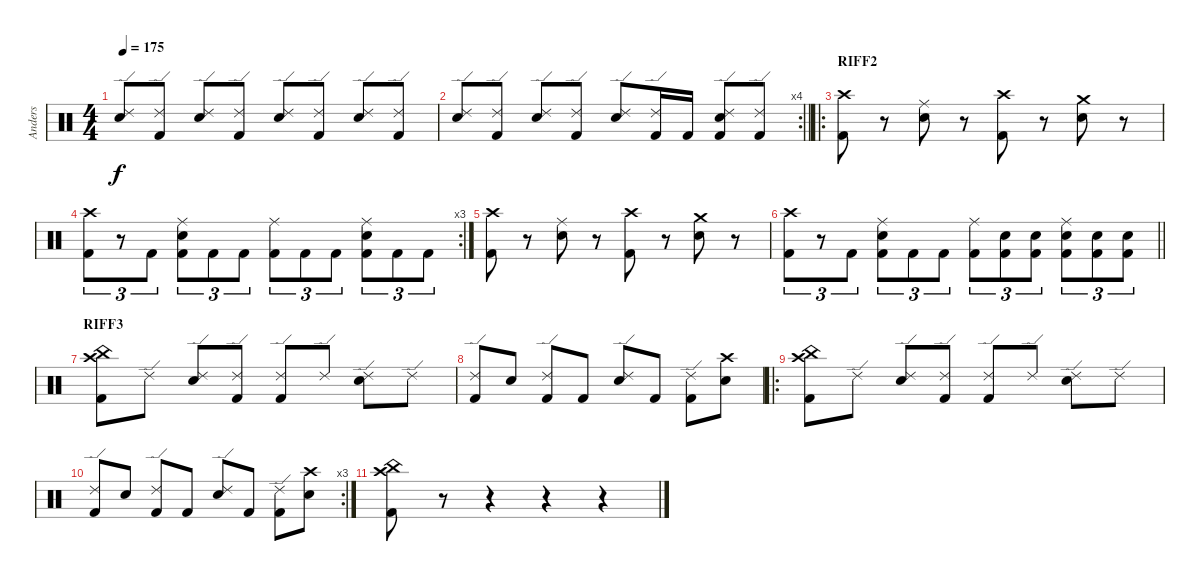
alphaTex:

\track ("Anders " "Anders ") {instrument percussion}
\staff {score}
\articulation defaults
\ts (4 4)
\tempo 175
\clef neutral
\ks c
("Ride (edge) 2" "Snare (hit) 2").8{dy f} ("Ride (edge) 2" "Kick (hit) 2").8 ("Ride (edge) 2" "Snare (hit) 2").8 ("Ride (edge) 2" "Kick (hit) 2").8 ("Ride (edge) 2" "Snare (hit) 2").8 ("Ride (edge) 2" "Kick (hit) 2").8 ("Ride (edge) 2" "Snare (hit) 2").8 ("Ride (edge) 2" "Kick (hit) 2").8 |
\rc 4
\barLineRight lightlight
("Ride (edge) 2" "Snare (hit) 2").8 ("Ride (edge) 2" "Kick (hit) 2").8 ("Ride (edge) 2" "Snare (hit) 2").8 ("Ride (edge) 2" "Kick (hit) 2").8 ("Ride (edge) 2" "Snare (hit) 2").8 ("Ride (edge) 2" "Kick (hit) 2").16 "Kick (hit) 2".16 ("Ride (edge) 2" "Snare (hit) 2" "Kick (hit) 2").8 ("Ride (edge) 2" "Kick (hit) 2").8 |
\ro
\section ("" "RIFF2")
("Crash high (hit)" "Kick (hit) 2").8 r.8 ("Ride (middle)" "Snare (hit) 2").8 r.8 ("Crash high (hit)" "Kick (hit) 2").8 r.8 ("Crash medium (hit)" "Snare (hit) 2").8 r.8 |
\rc 3
("Crash high (hit)" "Kick (hit) 2").8{tu (3 2)} r.8{tu (3 2)} "Kick (hit) 2".8{tu (3 2)} ("Ride (middle)" "Snare (hit) 2" "Kick (hit) 2").8{tu (3 2)} "Kick (hit) 2".8{tu (3 2)} "Kick (hit) 2".8{tu (3 2)} ("Ride (middle)" "Kick (hit) 2").8{tu (3 2)} "Kick (hit) 2".8{tu (3 2)} "Kick (hit) 2".8{tu (3 2)} ("Ride (middle)" "Snare (hit) 2" "Kick (hit) 2").8{tu (3 2)} "Kick (hit) 2".8{tu (3 2)} "Kick (hit) 2".8{tu (3 2)} |
("Crash high (hit)" "Kick (hit) 2").8 r.8 ("Ride (middle)" "Snare (hit) 2").8 r.8 ("Crash high (hit)" "Kick (hit) 2").8 r.8 ("Crash medium (hit)" "Snare (hit) 2").8 r.8 |
\barLineRight lightlight
("Crash high (hit)" "Kick (hit) 2").8{tu (3 2)} r.8{tu (3 2)} "Kick (hit) 2".8{tu (3 2)} ("Ride (middle)" "Snare (hit) 2" "Kick (hit) 2").8{tu (3 2)} "Kick (hit) 2".8{tu (3 2)} "Kick (hit) 2".8{tu (3 2)} ("Ride (middle)" "Kick (hit) 2").8{tu (3 2)} ("Snare (hit) 2" "Kick (hit) 2").8{tu (3 2)} ("Snare (hit) 2" "Kick (hit) 2").8{tu (3 2)} ("Ride (middle)" "Snare (hit) 2" "Kick (hit) 2").8{tu (3 2)} ("Snare (hit) 2" "Kick (hit) 2").8{tu (3 2)} ("Snare (hit) 2" "Kick (hit) 2").8{tu (3 2)} |
\section ("" "RIFF3")
("Crash high (hit)" "China (hit)" "Kick (hit) 2").8 "Ride (edge) 2".8 ("Ride (edge) 2" "Snare (hit) 2").8 ("Ride (edge) 2" "Kick (hit) 2").8 ("Ride (edge) 2" "Kick (hit) 2").8 "Ride (edge) 2".8 ("Ride (edge) 2" "Snare (hit) 2").8 "Ride (edge) 2".8 |
("Ride (edge) 2" "Kick (hit) 2").8 "Snare (hit) 2".8 ("Ride (edge) 2" "Kick (hit) 2").8 "Kick (hit) 2".8 ("Ride (edge) 2" "Snare (hit) 2").8 "Kick (hit) 2".8 ("Ride (edge) 2" "Kick (hit) 2").8 ("Crash high (hit)" "Snare (hit) 2").8 |
\ro
("Crash high (hit)" "China (hit)" "Kick (hit) 2").8 "Ride (edge) 2".8 ("Ride (edge) 2" "Snare (hit) 2").8 ("Ride (edge) 2" "Kick (hit) 2").8 ("Ride (edge) 2" "Kick (hit) 2").8 "Ride (edge) 2".8 ("Ride (edge) 2" "Snare (hit) 2").8 "Ride (edge) 2".8 |
\rc 3
("Ride (edge) 2" "Kick (hit) 2").8 "Snare (hit) 2".8 ("Ride (edge) 2" "Kick (hit) 2").8 "Kick (hit) 2".8 ("Ride (edge) 2" "Snare (hit) 2").8 "Kick (hit) 2".8 ("Ride (edge) 2" "Kick (hit) 2").8 ("Crash high (hit)" "Snare (hit) 2").8 |
("Crash high (hit)" "China (hit)" "Kick (hit) 2").8 r.8 r.4 r.4 r.4
